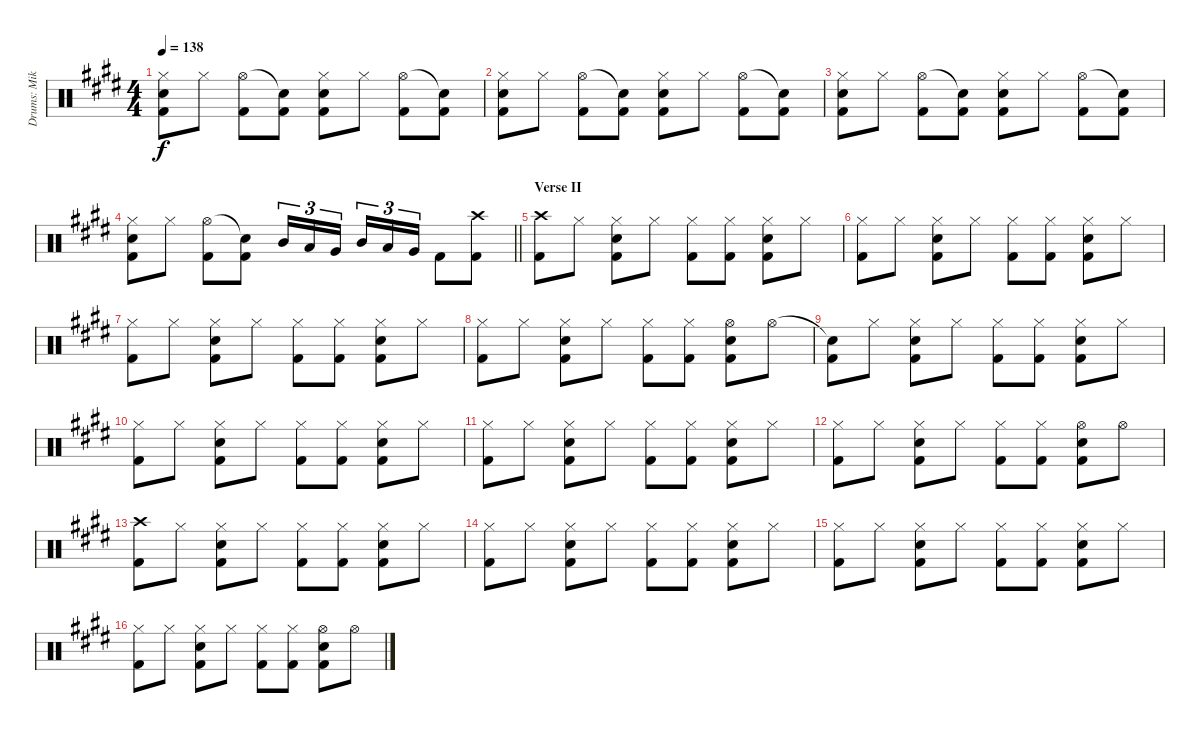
\track ("Drums: Mike" "Drums: Mik") {instrument percussion}
\staff {score}
\articulation defaults
\ts (4 4)
\tempo 138
\clef neutral
\ks e
("Hi-Hat (closed)" "Electric Snare (hit)" "Kick (hit) 2").8{dy f} "Hi-Hat (closed)".8 ("Hi-Hat (open)" "Kick (hit) 2").8 ("Snare (hit)"{t} "Kick (hit) 2").8 ("Hi-Hat (closed)" "Electric Snare (hit)" "Kick (hit) 2").8 "Hi-Hat (closed)".8 ("Hi-Hat (open)" "Kick (hit) 2").8 ("Snare (hit)"{t} "Kick (hit) 2").8 |
("Hi-Hat (closed)" "Electric Snare (hit)" "Kick (hit) 2").8 "Hi-Hat (closed)".8 ("Hi-Hat (open)" "Kick (hit) 2").8 ("Snare (hit)"{t} "Kick (hit) 2").8 ("Hi-Hat (closed)" "Electric Snare (hit)" "Kick (hit) 2").8 "Hi-Hat (closed)".8 ("Hi-Hat (open)" "Kick (hit) 2").8 ("Snare (hit)"{t} "Kick (hit) 2").8 |
("Hi-Hat (closed)" "Electric Snare (hit)" "Kick (hit) 2").8 "Hi-Hat (closed)".8 ("Hi-Hat (open)" "Kick (hit) 2").8 ("Snare (hit)"{t} "Kick (hit) 2").8 ("Hi-Hat (closed)" "Electric Snare (hit)" "Kick (hit) 2").8 "Hi-Hat (closed)".8 ("Hi-Hat (open)" "Kick (hit) 2").8 ("Snare (hit)"{t} "Kick (hit) 2").8 |
\barLineRight lightlight
("Hi-Hat (closed)" "Electric Snare (hit)" "Kick (hit) 2").8 "Hi-Hat (closed)".8 ("Hi-Hat (open)" "Kick (hit) 2").8 ("Snare (hit)"{t} "Kick (hit) 2").8 "Mid Tom (hit)".16{tu (3 2)} "Low Tom (hit)".16{tu (3 2)} "Very Low Tom (hit)".16{tu (3 2) beam splitsecondary} "Mid Tom (hit)".16{tu (3 2)} "Low Tom (hit)".16{tu (3 2)} "Very Low Tom (hit)".16{tu (3 2)} "Kick (hit) 2".8 ("Crash high (hit)" "Kick (hit) 2").8 |
\section ("" "Verse II")
("Crash high (hit)" "Kick (hit) 2").8 "Hi-Hat (closed)".8 ("Hi-Hat (closed)" "Electric Snare (hit)" "Kick (hit) 2").8 "Hi-Hat (closed)".8 ("Hi-Hat (closed)" "Kick (hit) 2").8 ("Hi-Hat (closed)" "Kick (hit) 2").8 ("Hi-Hat (closed)" "Electric Snare (hit)" "Kick (hit) 2").8 "Hi-Hat (closed)".8 |
("Hi-Hat (closed)" "Kick (hit) 2").8 "Hi-Hat (closed)".8 ("Hi-Hat (closed)" "Electric Snare (hit)" "Kick (hit) 2").8 "Hi-Hat (closed)".8 ("Hi-Hat (closed)" "Kick (hit) 2").8 ("Hi-Hat (closed)" "Kick (hit) 2").8 ("Hi-Hat (closed)" "Electric Snare (hit)" "Kick (hit) 2").8 "Hi-Hat (closed)".8 |
("Hi-Hat (closed)" "Kick (hit) 2").8 "Hi-Hat (closed)".8 ("Hi-Hat (closed)" "Electric Snare (hit)" "Kick (hit) 2").8 "Hi-Hat (closed)".8 ("Hi-Hat (closed)" "Kick (hit) 2").8 ("Hi-Hat (closed)" "Kick (hit) 2").8 ("Hi-Hat (closed)" "Electric Snare (hit)" "Kick (hit) 2").8 "Hi-Hat (closed)".8 |
("Hi-Hat (closed)" "Kick (hit) 2").8 "Hi-Hat (closed)".8 ("Hi-Hat (closed)" "Electric Snare (hit)" "Kick (hit) 2").8 "Hi-Hat (closed)".8 ("Hi-Hat (closed)" "Kick (hit) 2").8 ("Hi-Hat (closed)" "Kick (hit) 2").8 ("Hi-Hat (open)" "Electric Snare (hit)" "Kick (hit) 2").8 "Hi-Hat (open)".8 |
("Snare (hit)"{t} "Kick (hit) 2").8 "Hi-Hat (closed)".8 ("Hi-Hat (closed)" "Electric Snare (hit)" "Kick (hit) 2").8 "Hi-Hat (closed)".8 ("Hi-Hat (closed)" "Kick (hit) 2").8 ("Hi-Hat (closed)" "Kick (hit) 2").8 ("Hi-Hat (closed)" "Electric Snare (hit)" "Kick (hit) 2").8 "Hi-Hat (closed)".8 |
("Hi-Hat (closed)" "Kick (hit) 2").8 "Hi-Hat (closed)".8 ("Hi-Hat (closed)" "Electric Snare (hit)" "Kick (hit) 2").8 "Hi-Hat (closed)".8 ("Hi-Hat (closed)" "Kick (hit) 2").8 ("Hi-Hat (closed)" "Kick (hit) 2").8 ("Hi-Hat (closed)" "Electric Snare (hit)" "Kick (hit) 2").8 "Hi-Hat (closed)".8 |
("Hi-Hat (closed)" "Kick (hit) 2").8 "Hi-Hat (closed)".8 ("Hi-Hat (closed)" "Electric Snare (hit)" "Kick (hit) 2").8 "Hi-Hat (closed)".8 ("Hi-Hat (closed)" "Kick (hit) 2").8 ("Hi-Hat (closed)" "Kick (hit) 2").8 ("Hi-Hat (closed)" "Electric Snare (hit)" "Kick (hit) 2").8 "Hi-Hat (closed)".8 |
("Hi-Hat (closed)" "Kick (hit) 2").8 "Hi-Hat (closed)".8 ("Hi-Hat (closed)" "Electric Snare (hit)" "Kick (hit) 2").8 "Hi-Hat (closed)".8 ("Hi-Hat (closed)" "Kick (hit) 2").8 ("Hi-Hat (closed)" "Kick (hit) 2").8 ("Hi-Hat (open)" "Electric Snare (hit)" "Kick (hit) 2").8 "Hi-Hat (open)".8 |
("Crash high (hit)" "Kick (hit) 2").8 "Hi-Hat (closed)".8 ("Hi-Hat (closed)" "Electric Snare (hit)" "Kick (hit) 2").8 "Hi-Hat (closed)".8 ("Hi-Hat (closed)" "Kick (hit) 2").8 ("Hi-Hat (closed)" "Kick (hit) 2").8 ("Hi-Hat (closed)" "Electric Snare (hit)" "Kick (hit) 2").8 "Hi-Hat (closed)".8 |
("Hi-Hat (closed)" "Kick (hit) 2").8 "Hi-Hat (closed)".8 ("Hi-Hat (closed)" "Electric Snare (hit)" "Kick (hit) 2").8 "Hi-Hat (closed)".8 ("Hi-Hat (closed)" "Kick (hit) 2").8 ("Hi-Hat (closed)" "Kick (hit) 2").8 ("Hi-Hat (closed)" "Electric Snare (hit)" "Kick (hit) 2").8 "Hi-Hat (closed)".8 |
("Hi-Hat (closed)" "Kick (hit) 2").8 "Hi-Hat (closed)".8 ("Hi-Hat (closed)" "Electric Snare (hit)" "Kick (hit) 2").8 "Hi-Hat (closed)".8 ("Hi-Hat (closed)" "Kick (hit) 2").8 ("Hi-Hat (closed)" "Kick (hit) 2").8 ("Hi-Hat (closed)" "Electric Snare (hit)" "Kick (hit) 2").8 "Hi-Hat (closed)".8 |
("Hi-Hat (closed)" "Kick (hit) 2").8 "Hi-Hat (closed)".8 ("Hi-Hat (closed)" "Electric Snare (hit)" "Kick (hit) 2").8 "Hi-Hat (closed)".8 ("Hi-Hat (closed)" "Kick (hit) 2").8 ("Hi-Hat (closed)" "Kick (hit) 2").8 ("Hi-Hat (open)" "Electric Snare (hit)" "Kick (hit) 2").8 "Hi-Hat (open)".8
